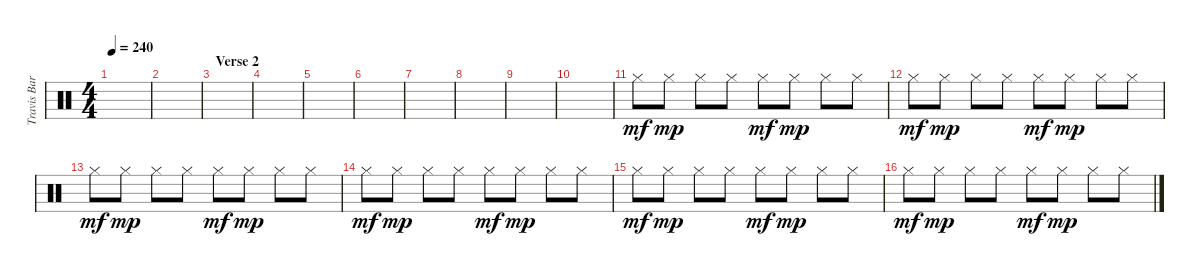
\track ("Travis Barker - Drums 2" "Travis Bar") {instrument percussion}
\staff {score}
\articulation defaults
\ts (4 4)
\tempo 240
\clef neutral
\ks c
|
|
\section ("" "Verse 2")
|
|
|
|
|
|
|
|
"Hi-Hat (closed)".8{dy mf} "Hi-Hat (closed)".8{dy mp} "Hi-Hat (closed)".8 "Hi-Hat (closed)".8 "Hi-Hat (closed)".8{dy mf} "Hi-Hat (closed)".8{dy mp} "Hi-Hat (closed)".8 "Hi-Hat (closed)".8 |
"Hi-Hat (closed)".8{dy mf} "Hi-Hat (closed)".8{dy mp} "Hi-Hat (closed)".8 "Hi-Hat (closed)".8 "Hi-Hat (closed)".8{dy mf} "Hi-Hat (closed)".8{dy mp} "Hi-Hat (closed)".8 "Hi-Hat (closed)".8 |
"Hi-Hat (closed)".8{dy mf} "Hi-Hat (closed)".8{dy mp} "Hi-Hat (closed)".8 "Hi-Hat (closed)".8 "Hi-Hat (closed)".8{dy mf} "Hi-Hat (closed)".8{dy mp} "Hi-Hat (closed)".8 "Hi-Hat (closed)".8 |
"Hi-Hat (closed)".8{dy mf} "Hi-Hat (closed)".8{dy mp} "Hi-Hat (closed)".8 "Hi-Hat (closed)".8 "Hi-Hat (closed)".8{dy mf} "Hi-Hat (closed)".8{dy mp} "Hi-Hat (closed)".8 "Hi-Hat (closed)".8 |
"Hi-Hat (closed)".8{dy mf} "Hi-Hat (closed)".8{dy mp} "Hi-Hat (closed)".8 "Hi-Hat (closed)".8 "Hi-Hat (closed)".8{dy mf} "Hi-Hat (closed)".8{dy mp} "Hi-Hat (closed)".8 "Hi-Hat (closed)".8 |
"Hi-Hat (closed)".8{dy mf} "Hi-Hat (closed)".8{dy mp} "Hi-Hat (closed)".8 "Hi-Hat (closed)".8 "Hi-Hat (closed)".8{dy mf} "Hi-Hat (closed)".8{dy mp} "Hi-Hat (closed)".8 "Hi-Hat (closed)".8
